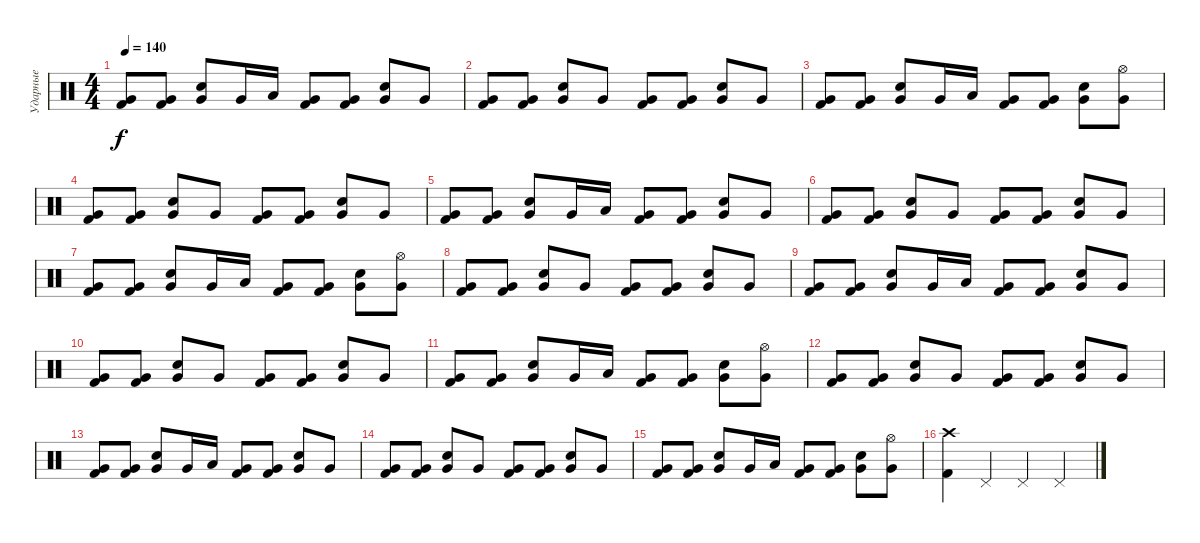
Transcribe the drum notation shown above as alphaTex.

\track ("Ударные" "Ударные") {instrument percussion}
\staff {score}
\articulation defaults
\ts (4 4)
\tempo 140
\clef neutral
\ks c
("Very Low Tom (hit)" "Kick (hit) 2").8{dy f} ("Very Low Tom (hit)" "Kick (hit) 2").8 ("Very Low Tom (hit)" "Electric Snare (hit)").8 "Very Low Tom (hit)".16 "Low Tom (hit)".16 ("Very Low Tom (hit)" "Kick (hit) 2").8 ("Very Low Tom (hit)" "Kick (hit) 2").8 ("Very Low Tom (hit)" "Electric Snare (hit)").8 "Very Low Tom (hit)".8 |
("Very Low Tom (hit)" "Kick (hit) 2").8 ("Very Low Tom (hit)" "Kick (hit) 2").8 ("Very Low Tom (hit)" "Electric Snare (hit)").8 "Very Low Tom (hit)".8 ("Very Low Tom (hit)" "Kick (hit) 2").8 ("Very Low Tom (hit)" "Kick (hit) 2").8 ("Very Low Tom (hit)" "Electric Snare (hit)").8 "Very Low Tom (hit)".8 |
("Very Low Tom (hit)" "Kick (hit) 2").8 ("Very Low Tom (hit)" "Kick (hit) 2").8 ("Very Low Tom (hit)" "Electric Snare (hit)").8 "Very Low Tom (hit)".16 "Low Tom (hit)".16 ("Very Low Tom (hit)" "Kick (hit) 2").8 ("Very Low Tom (hit)" "Kick (hit) 2").8 ("Very Low Tom (hit)" "Electric Snare (hit)").8 ("Hi-Hat (open)" "Very Low Tom (hit)").8 |
("Very Low Tom (hit)" "Kick (hit) 2").8 ("Very Low Tom (hit)" "Kick (hit) 2").8 ("Very Low Tom (hit)" "Electric Snare (hit)").8 "Very Low Tom (hit)".8 ("Very Low Tom (hit)" "Kick (hit) 2").8 ("Very Low Tom (hit)" "Kick (hit) 2").8 ("Very Low Tom (hit)" "Electric Snare (hit)").8 "Very Low Tom (hit)".8 |
("Very Low Tom (hit)" "Kick (hit) 2").8 ("Very Low Tom (hit)" "Kick (hit) 2").8 ("Very Low Tom (hit)" "Electric Snare (hit)").8 "Very Low Tom (hit)".16 "Low Tom (hit)".16 ("Very Low Tom (hit)" "Kick (hit) 2").8 ("Very Low Tom (hit)" "Kick (hit) 2").8 ("Very Low Tom (hit)" "Electric Snare (hit)").8 "Very Low Tom (hit)".8 |
("Very Low Tom (hit)" "Kick (hit) 2").8 ("Very Low Tom (hit)" "Kick (hit) 2").8 ("Very Low Tom (hit)" "Electric Snare (hit)").8 "Very Low Tom (hit)".8 ("Very Low Tom (hit)" "Kick (hit) 2").8 ("Very Low Tom (hit)" "Kick (hit) 2").8 ("Very Low Tom (hit)" "Electric Snare (hit)").8 "Very Low Tom (hit)".8 |
("Very Low Tom (hit)" "Kick (hit) 2").8 ("Very Low Tom (hit)" "Kick (hit) 2").8 ("Very Low Tom (hit)" "Electric Snare (hit)").8 "Very Low Tom (hit)".16 "Low Tom (hit)".16 ("Very Low Tom (hit)" "Kick (hit) 2").8 ("Very Low Tom (hit)" "Kick (hit) 2").8 ("Very Low Tom (hit)" "Electric Snare (hit)").8 ("Hi-Hat (open)" "Very Low Tom (hit)").8 |
("Very Low Tom (hit)" "Kick (hit) 2").8 ("Very Low Tom (hit)" "Kick (hit) 2").8 ("Very Low Tom (hit)" "Electric Snare (hit)").8 "Very Low Tom (hit)".8 ("Very Low Tom (hit)" "Kick (hit) 2").8 ("Very Low Tom (hit)" "Kick (hit) 2").8 ("Very Low Tom (hit)" "Electric Snare (hit)").8 "Very Low Tom (hit)".8 |
("Very Low Tom (hit)" "Kick (hit) 2").8 ("Very Low Tom (hit)" "Kick (hit) 2").8 ("Very Low Tom (hit)" "Electric Snare (hit)").8 "Very Low Tom (hit)".16 "Low Tom (hit)".16 ("Very Low Tom (hit)" "Kick (hit) 2").8 ("Very Low Tom (hit)" "Kick (hit) 2").8 ("Very Low Tom (hit)" "Electric Snare (hit)").8 "Very Low Tom (hit)".8 |
("Very Low Tom (hit)" "Kick (hit) 2").8 ("Very Low Tom (hit)" "Kick (hit) 2").8 ("Very Low Tom (hit)" "Electric Snare (hit)").8 "Very Low Tom (hit)".8 ("Very Low Tom (hit)" "Kick (hit) 2").8 ("Very Low Tom (hit)" "Kick (hit) 2").8 ("Very Low Tom (hit)" "Electric Snare (hit)").8 "Very Low Tom (hit)".8 |
("Very Low Tom (hit)" "Kick (hit) 2").8 ("Very Low Tom (hit)" "Kick (hit) 2").8 ("Very Low Tom (hit)" "Electric Snare (hit)").8 "Very Low Tom (hit)".16 "Low Tom (hit)".16 ("Very Low Tom (hit)" "Kick (hit) 2").8 ("Very Low Tom (hit)" "Kick (hit) 2").8 ("Very Low Tom (hit)" "Electric Snare (hit)").8 ("Hi-Hat (open)" "Very Low Tom (hit)").8 |
("Very Low Tom (hit)" "Kick (hit) 2").8 ("Very Low Tom (hit)" "Kick (hit) 2").8 ("Very Low Tom (hit)" "Electric Snare (hit)").8 "Very Low Tom (hit)".8 ("Very Low Tom (hit)" "Kick (hit) 2").8 ("Very Low Tom (hit)" "Kick (hit) 2").8 ("Very Low Tom (hit)" "Electric Snare (hit)").8 "Very Low Tom (hit)".8 |
("Very Low Tom (hit)" "Kick (hit) 2").8 ("Very Low Tom (hit)" "Kick (hit) 2").8 ("Very Low Tom (hit)" "Electric Snare (hit)").8 "Very Low Tom (hit)".16 "Low Tom (hit)".16 ("Very Low Tom (hit)" "Kick (hit) 2").8 ("Very Low Tom (hit)" "Kick (hit) 2").8 ("Very Low Tom (hit)" "Electric Snare (hit)").8 "Very Low Tom (hit)".8 |
("Very Low Tom (hit)" "Kick (hit) 2").8 ("Very Low Tom (hit)" "Kick (hit) 2").8 ("Very Low Tom (hit)" "Electric Snare (hit)").8 "Very Low Tom (hit)".8 ("Very Low Tom (hit)" "Kick (hit) 2").8 ("Very Low Tom (hit)" "Kick (hit) 2").8 ("Very Low Tom (hit)" "Electric Snare (hit)").8 "Very Low Tom (hit)".8 |
("Very Low Tom (hit)" "Kick (hit) 2").8 ("Very Low Tom (hit)" "Kick (hit) 2").8 ("Very Low Tom (hit)" "Electric Snare (hit)").8 "Very Low Tom (hit)".16 "Low Tom (hit)".16 ("Very Low Tom (hit)" "Kick (hit) 2").8 ("Very Low Tom (hit)" "Kick (hit) 2").8 ("Very Low Tom (hit)" "Electric Snare (hit)").8 ("Hi-Hat (open)" "Very Low Tom (hit)").8 |
("Crash high (hit)" "Kick (hit) 2").4 "Pedal Hi-Hat (hit)".4 "Pedal Hi-Hat (hit)".4 "Pedal Hi-Hat (hit)".4
